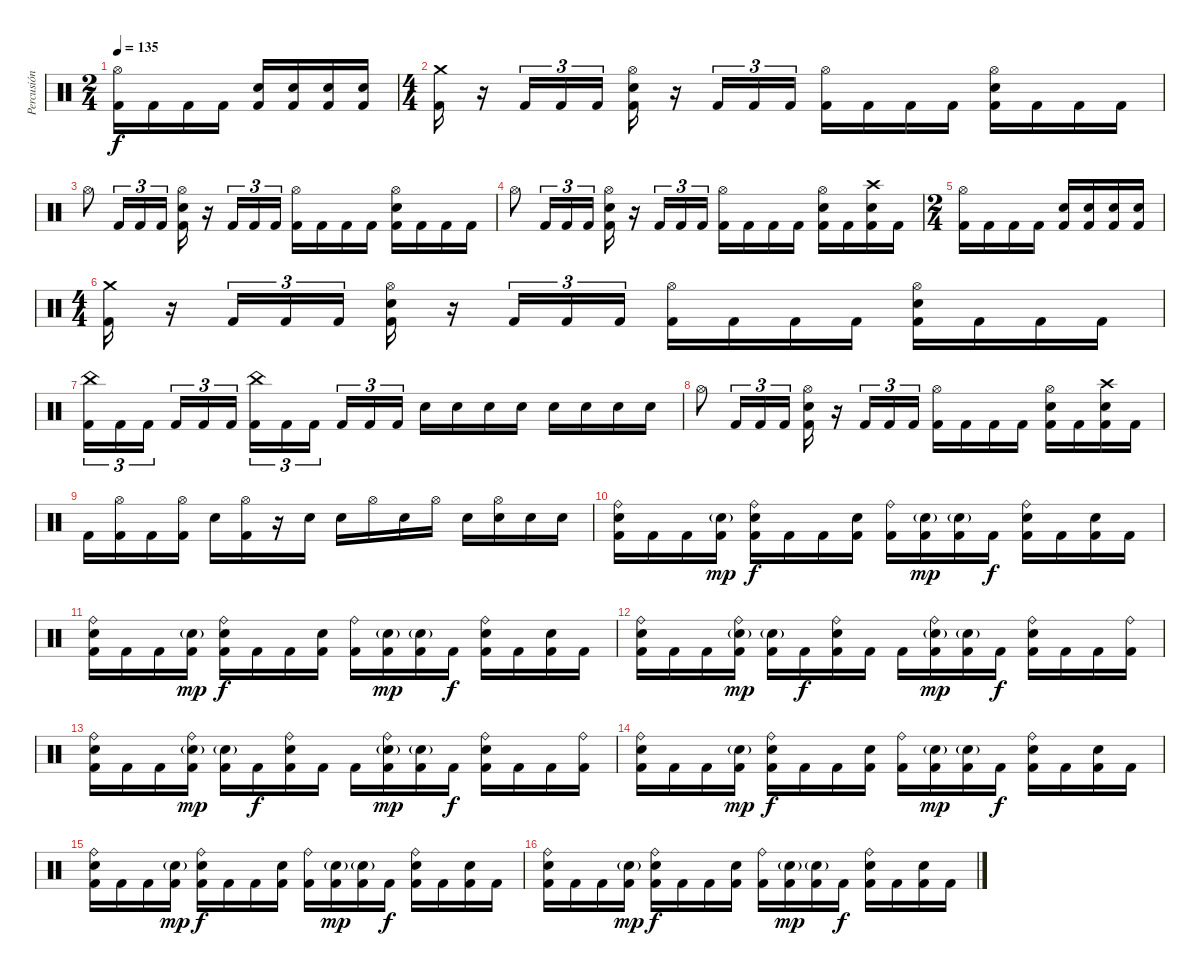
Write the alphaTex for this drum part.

\track ("Percusión" "Percusión") {instrument percussion}
\staff {score}
\articulation defaults
\ts (2 4)
\tempo 135
\clef neutral
\ks c
("Hi-Hat (open)" "Kick (hit) 2").16{dy f} "Kick (hit) 2".16 "Kick (hit) 2".16 "Kick (hit) 2".16 ("Electric Snare (hit)" "Kick (hit) 2").16 ("Electric Snare (hit)" "Kick (hit) 2").16 ("Electric Snare (hit)" "Kick (hit) 2").16 ("Electric Snare (hit)" "Kick (hit) 2").16 |
\ts (4 4)
("Crash medium (hit)" "Kick (hit) 2").16 r.16 "Kick (hit) 2".16{tu (3 2)} "Kick (hit) 2".16{tu (3 2)} "Kick (hit) 2".16{tu (3 2)} ("Hi-Hat (open)" "Electric Snare (hit)" "Kick (hit) 2").16 r.16 "Kick (hit) 2".16{tu (3 2)} "Kick (hit) 2".16{tu (3 2)} "Kick (hit) 2".16{tu (3 2)} ("Hi-Hat (open)" "Kick (hit) 2").16 "Kick (hit) 2".16 "Kick (hit) 2".16 "Kick (hit) 2".16 ("Hi-Hat (open)" "Electric Snare (hit)" "Kick (hit) 2").16 "Kick (hit) 2".16 "Kick (hit) 2".16 "Kick (hit) 2".16 |
"Hi-Hat (open)".8 "Kick (hit) 2".16{tu (3 2)} "Kick (hit) 2".16{tu (3 2)} "Kick (hit) 2".16{tu (3 2)} ("Hi-Hat (open)" "Electric Snare (hit)" "Kick (hit) 2").16 r.16 "Kick (hit) 2".16{tu (3 2)} "Kick (hit) 2".16{tu (3 2)} "Kick (hit) 2".16{tu (3 2)} ("Hi-Hat (open)" "Kick (hit) 2").16 "Kick (hit) 2".16 "Kick (hit) 2".16 "Kick (hit) 2".16 ("Hi-Hat (open)" "Electric Snare (hit)" "Kick (hit) 2").16 "Kick (hit) 2".16 "Kick (hit) 2".16 "Kick (hit) 2".16 |
"Hi-Hat (open)".8 "Kick (hit) 2".16{tu (3 2)} "Kick (hit) 2".16{tu (3 2)} "Kick (hit) 2".16{tu (3 2)} ("Hi-Hat (open)" "Electric Snare (hit)" "Kick (hit) 2").16 r.16 "Kick (hit) 2".16{tu (3 2)} "Kick (hit) 2".16{tu (3 2)} "Kick (hit) 2".16{tu (3 2)} ("Hi-Hat (open)" "Kick (hit) 2").16 "Kick (hit) 2".16 "Kick (hit) 2".16 "Kick (hit) 2".16 ("Hi-Hat (open)" "Electric Snare (hit)" "Kick (hit) 2").16 "Kick (hit) 2".16 ("Crash high (hit)" "Electric Snare (hit)" "Kick (hit) 2").16 "Kick (hit) 2".16 |
\ts (2 4)
("Hi-Hat (open)" "Kick (hit) 2").16 "Kick (hit) 2".16 "Kick (hit) 2".16 "Kick (hit) 2".16 ("Electric Snare (hit)" "Kick (hit) 2").16 ("Electric Snare (hit)" "Kick (hit) 2").16 ("Electric Snare (hit)" "Kick (hit) 2").16 ("Electric Snare (hit)" "Kick (hit) 2").16 |
\ts (4 4)
("Crash medium (hit)" "Kick (hit) 2").16 r.16 "Kick (hit) 2".16{tu (3 2)} "Kick (hit) 2".16{tu (3 2)} "Kick (hit) 2".16{tu (3 2)} ("Hi-Hat (open)" "Electric Snare (hit)" "Kick (hit) 2").16 r.16 "Kick (hit) 2".16{tu (3 2)} "Kick (hit) 2".16{tu (3 2)} "Kick (hit) 2".16{tu (3 2)} ("Hi-Hat (open)" "Kick (hit) 2").16 "Kick (hit) 2".16 "Kick (hit) 2".16 "Kick (hit) 2".16 ("Hi-Hat (open)" "Electric Snare (hit)" "Kick (hit) 2").16 "Kick (hit) 2".16 "Kick (hit) 2".16 "Kick (hit) 2".16 |
("China (hit)" "Kick (hit) 2").16{tu (3 2)} "Kick (hit) 2".16{tu (3 2)} "Kick (hit) 2".16{tu (3 2) beam splitsecondary} "Kick (hit) 2".16{tu (3 2)} "Kick (hit) 2".16{tu (3 2)} "Kick (hit) 2".16{tu (3 2)} ("China (hit)" "Kick (hit) 2").16{tu (3 2)} "Kick (hit) 2".16{tu (3 2)} "Kick (hit) 2".16{tu (3 2) beam splitsecondary} "Kick (hit) 2".16{tu (3 2)} "Kick (hit) 2".16{tu (3 2)} "Kick (hit) 2".16{tu (3 2)} "Electric Snare (hit)".16 "Electric Snare (hit)".16 "Electric Snare (hit)".16 "Electric Snare (hit)".16 "Electric Snare (hit)".16 "Electric Snare (hit)".16 "Electric Snare (hit)".16 "Electric Snare (hit)".16 |
"Hi-Hat (open)".8 "Kick (hit) 2".16{tu (3 2)} "Kick (hit) 2".16{tu (3 2)} "Kick (hit) 2".16{tu (3 2)} ("Hi-Hat (open)" "Electric Snare (hit)" "Kick (hit) 2").16 r.16 "Kick (hit) 2".16{tu (3 2)} "Kick (hit) 2".16{tu (3 2)} "Kick (hit) 2".16{tu (3 2)} ("Hi-Hat (open)" "Kick (hit) 2").16 "Kick (hit) 2".16 "Kick (hit) 2".16 "Kick (hit) 2".16 ("Hi-Hat (open)" "Electric Snare (hit)" "Kick (hit) 2").16 "Kick (hit) 2".16 ("Crash high (hit)" "Electric Snare (hit)" "Kick (hit) 2").16 "Kick (hit) 2".16 |
"Kick (hit) 2".16 ("Hi-Hat (open)" "Kick (hit) 2").16 "Kick (hit) 2".16 ("Hi-Hat (open)" "Kick (hit) 2").16 "Electric Snare (hit)".16 ("Hi-Hat (open)" "Kick (hit) 2").16 r.16 "Electric Snare (hit)".16 "Electric Snare (hit)".16 "Hi-Hat (open)".16 "Electric Snare (hit)".16 "Hi-Hat (open)".16 "Electric Snare (hit)".16 ("Hi-Hat (open)" "Electric Snare (hit)").16 "Electric Snare (hit)".16 "Electric Snare (hit)".16 |
("Ride (bell)" "Electric Snare (hit)" "Kick (hit) 2").16 "Kick (hit) 2".16 "Kick (hit) 2".16 ("Electric Snare (hit)"{g} "Kick (hit) 2").16{dy mp} ("Ride (bell)" "Electric Snare (hit)" "Kick (hit) 2").16{dy f} "Kick (hit) 2".16 "Kick (hit) 2".16 ("Electric Snare (hit)" "Kick (hit) 2").16 ("Ride (bell)" "Kick (hit) 2").16 ("Electric Snare (hit)"{g} "Kick (hit) 2").16{dy mp} ("Electric Snare (hit)"{g} "Kick (hit) 2").16 "Kick (hit) 2".16{dy f} ("Ride (bell)" "Electric Snare (hit)" "Kick (hit) 2").16 "Kick (hit) 2".16 ("Electric Snare (hit)" "Kick (hit) 2").16 "Kick (hit) 2".16 |
("Ride (bell)" "Electric Snare (hit)" "Kick (hit) 2").16 "Kick (hit) 2".16 "Kick (hit) 2".16 ("Electric Snare (hit)"{g} "Kick (hit) 2").16{dy mp} ("Ride (bell)" "Electric Snare (hit)" "Kick (hit) 2").16{dy f} "Kick (hit) 2".16 "Kick (hit) 2".16 ("Electric Snare (hit)" "Kick (hit) 2").16 ("Ride (bell)" "Kick (hit) 2").16 ("Electric Snare (hit)"{g} "Kick (hit) 2").16{dy mp} ("Electric Snare (hit)"{g} "Kick (hit) 2").16 "Kick (hit) 2".16{dy f} ("Ride (bell)" "Electric Snare (hit)" "Kick (hit) 2").16 "Kick (hit) 2".16 ("Electric Snare (hit)" "Kick (hit) 2").16 "Kick (hit) 2".16 |
("Ride (bell)" "Electric Snare (hit)" "Kick (hit) 2").16 "Kick (hit) 2".16 "Kick (hit) 2".16 ("Ride (bell)" "Electric Snare (hit)"{g} "Kick (hit) 2").16{dy mp} ("Electric Snare (hit)"{g} "Kick (hit) 2").16 "Kick (hit) 2".16{dy f} ("Ride (bell)" "Electric Snare (hit)" "Kick (hit) 2").16 "Kick (hit) 2".16 "Kick (hit) 2".16 ("Ride (bell)" "Electric Snare (hit)"{g} "Kick (hit) 2").16{dy mp} ("Electric Snare (hit)"{g} "Kick (hit) 2").16 "Kick (hit) 2".16{dy f} ("Ride (bell)" "Electric Snare (hit)" "Kick (hit) 2").16 "Kick (hit) 2".16 "Kick (hit) 2".16 ("Ride (bell)" "Kick (hit) 2").16 |
("Ride (bell)" "Electric Snare (hit)" "Kick (hit) 2").16 "Kick (hit) 2".16 "Kick (hit) 2".16 ("Ride (bell)" "Electric Snare (hit)"{g} "Kick (hit) 2").16{dy mp} ("Electric Snare (hit)"{g} "Kick (hit) 2").16 "Kick (hit) 2".16{dy f} ("Ride (bell)" "Electric Snare (hit)" "Kick (hit) 2").16 "Kick (hit) 2".16 "Kick (hit) 2".16 ("Ride (bell)" "Electric Snare (hit)"{g} "Kick (hit) 2").16{dy mp} ("Electric Snare (hit)"{g} "Kick (hit) 2").16 "Kick (hit) 2".16{dy f} ("Ride (bell)" "Electric Snare (hit)" "Kick (hit) 2").16 "Kick (hit) 2".16 "Kick (hit) 2".16 ("Ride (bell)" "Kick (hit) 2").16 |
("Ride (bell)" "Electric Snare (hit)" "Kick (hit) 2").16 "Kick (hit) 2".16 "Kick (hit) 2".16 ("Electric Snare (hit)"{g} "Kick (hit) 2").16{dy mp} ("Ride (bell)" "Electric Snare (hit)" "Kick (hit) 2").16{dy f} "Kick (hit) 2".16 "Kick (hit) 2".16 ("Electric Snare (hit)" "Kick (hit) 2").16 ("Ride (bell)" "Kick (hit) 2").16 ("Electric Snare (hit)"{g} "Kick (hit) 2").16{dy mp} ("Electric Snare (hit)"{g} "Kick (hit) 2").16 "Kick (hit) 2".16{dy f} ("Ride (bell)" "Electric Snare (hit)" "Kick (hit) 2").16 "Kick (hit) 2".16 ("Electric Snare (hit)" "Kick (hit) 2").16 "Kick (hit) 2".16 |
("Ride (bell)" "Electric Snare (hit)" "Kick (hit) 2").16 "Kick (hit) 2".16 "Kick (hit) 2".16 ("Electric Snare (hit)"{g} "Kick (hit) 2").16{dy mp} ("Ride (bell)" "Electric Snare (hit)" "Kick (hit) 2").16{dy f} "Kick (hit) 2".16 "Kick (hit) 2".16 ("Electric Snare (hit)" "Kick (hit) 2").16 ("Ride (bell)" "Kick (hit) 2").16 ("Electric Snare (hit)"{g} "Kick (hit) 2").16{dy mp} ("Electric Snare (hit)"{g} "Kick (hit) 2").16 "Kick (hit) 2".16{dy f} ("Ride (bell)" "Electric Snare (hit)" "Kick (hit) 2").16 "Kick (hit) 2".16 ("Electric Snare (hit)" "Kick (hit) 2").16 "Kick (hit) 2".16 |
("Ride (bell)" "Electric Snare (hit)" "Kick (hit) 2").16 "Kick (hit) 2".16 "Kick (hit) 2".16 ("Electric Snare (hit)"{g} "Kick (hit) 2").16{dy mp} ("Ride (bell)" "Electric Snare (hit)" "Kick (hit) 2").16{dy f} "Kick (hit) 2".16 "Kick (hit) 2".16 ("Electric Snare (hit)" "Kick (hit) 2").16 ("Ride (bell)" "Kick (hit) 2").16 ("Electric Snare (hit)"{g} "Kick (hit) 2").16{dy mp} ("Electric Snare (hit)"{g} "Kick (hit) 2").16 "Kick (hit) 2".16{dy f} ("Ride (bell)" "Electric Snare (hit)" "Kick (hit) 2").16 "Kick (hit) 2".16 ("Electric Snare (hit)" "Kick (hit) 2").16 "Kick (hit) 2".16
